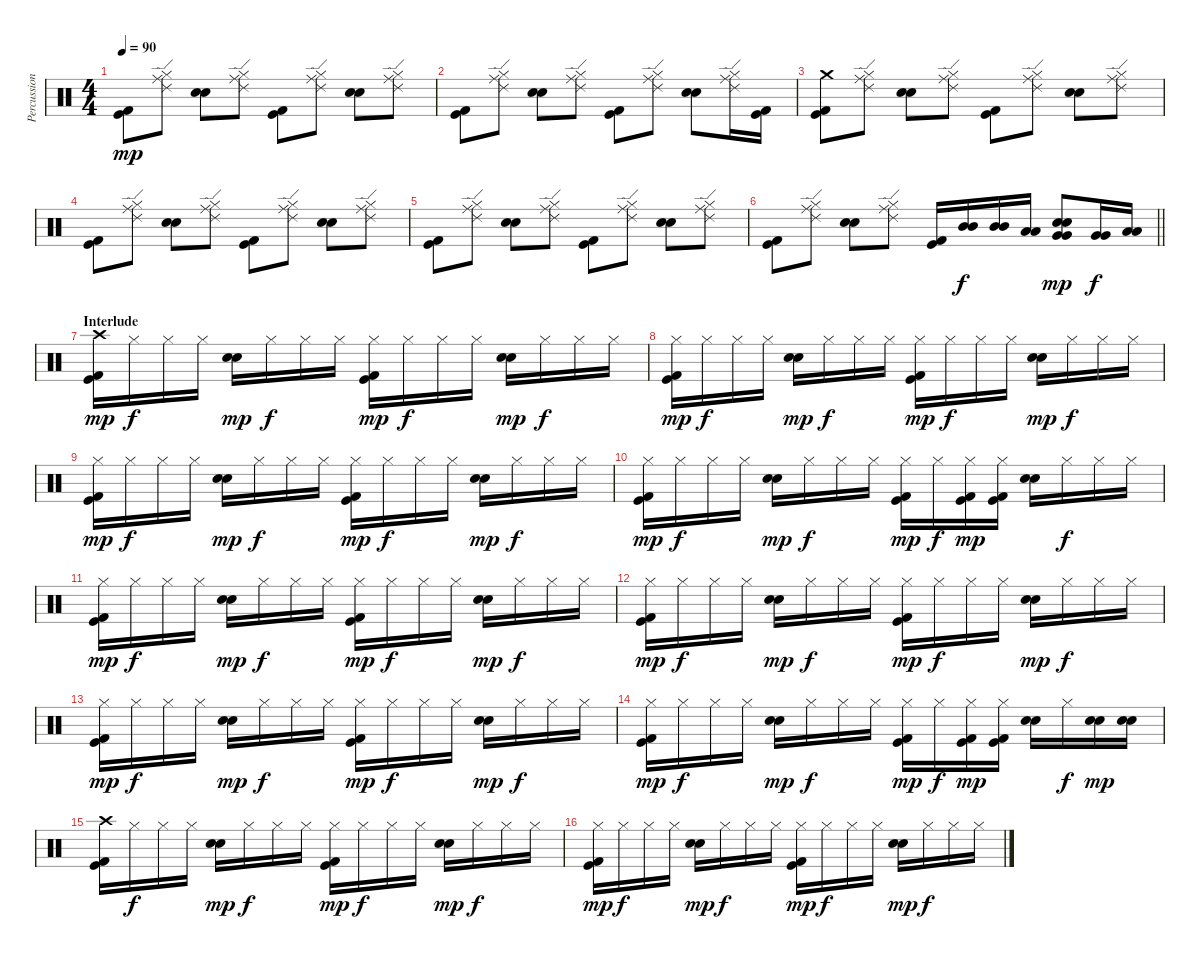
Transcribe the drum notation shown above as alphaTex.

\track ("Percussion" "Percussion") {instrument percussion}
\staff {score}
\articulation defaults
\ts (4 4)
\tempo 90
\clef neutral
\ks c
("Kick (hit)" "Kick (hit) 2").8{dy mp} ("Ride (edge) 2" "Ride (middle)" "Hi-Hat (closed)").8 ("Snare (hit) 2" "Electric Snare (hit)").8 ("Ride (edge) 2" "Ride (middle)" "Hi-Hat (closed)").8 ("Kick (hit)" "Kick (hit) 2").8 ("Ride (edge) 2" "Ride (middle)" "Hi-Hat (closed)").8 ("Snare (hit) 2" "Electric Snare (hit)").8 ("Ride (edge) 2" "Ride (middle)" "Hi-Hat (closed)").8 |
("Kick (hit)" "Kick (hit) 2").8 ("Ride (edge) 2" "Ride (middle)" "Hi-Hat (closed)").8 ("Snare (hit) 2" "Electric Snare (hit)").8 ("Ride (edge) 2" "Ride (middle)" "Hi-Hat (closed)").8 ("Kick (hit)" "Kick (hit) 2").8 ("Ride (edge) 2" "Ride (middle)" "Hi-Hat (closed)").8 ("Snare (hit) 2" "Electric Snare (hit)").8 ("Ride (edge) 2" "Ride (middle)" "Hi-Hat (closed)").16 ("Kick (hit)" "Kick (hit) 2").16 |
("Crash medium (hit)" "Kick (hit)" "Kick (hit) 2").8 ("Ride (edge) 2" "Ride (middle)" "Hi-Hat (closed)").8 ("Snare (hit) 2" "Electric Snare (hit)").8 ("Ride (edge) 2" "Ride (middle)" "Hi-Hat (closed)").8 ("Kick (hit)" "Kick (hit) 2").8 ("Ride (edge) 2" "Ride (middle)" "Hi-Hat (closed)").8 ("Snare (hit) 2" "Electric Snare (hit)").8 ("Ride (edge) 2" "Ride (middle)" "Hi-Hat (closed)").8 |
("Kick (hit)" "Kick (hit) 2").8 ("Ride (edge) 2" "Ride (middle)" "Hi-Hat (closed)").8 ("Snare (hit) 2" "Electric Snare (hit)").8 ("Ride (edge) 2" "Ride (middle)" "Hi-Hat (closed)").8 ("Kick (hit)" "Kick (hit) 2").8 ("Ride (edge) 2" "Ride (middle)" "Hi-Hat (closed)").8 ("Snare (hit) 2" "Electric Snare (hit)").8 ("Ride (edge) 2" "Ride (middle)" "Hi-Hat (closed)").8 |
("Kick (hit)" "Kick (hit) 2").8 ("Ride (edge) 2" "Ride (middle)" "Hi-Hat (closed)").8 ("Snare (hit) 2" "Electric Snare (hit)").8 ("Ride (edge) 2" "Ride (middle)" "Hi-Hat (closed)").8 ("Kick (hit)" "Kick (hit) 2").8 ("Ride (edge) 2" "Ride (middle)" "Hi-Hat (closed)").8 ("Snare (hit) 2" "Electric Snare (hit)").8 ("Ride (edge) 2" "Ride (middle)" "Hi-Hat (closed)").8 |
\barLineRight lightlight
("Kick (hit)" "Kick (hit) 2").8 ("Ride (edge) 2" "Ride (middle)" "Hi-Hat (closed)").8 ("Snare (hit) 2" "Electric Snare (hit)").8 ("Ride (edge) 2" "Ride (middle)" "Hi-Hat (closed)").8 ("Kick (hit)" "Kick (hit) 2").16 ("Mid Tom (hit)" "Mid Tom (hit)").16{dy f} ("Mid Tom (hit)" "Mid Tom (hit)").16 ("Low Tom (hit)" "Low Tom (hit)").16 ("Very Low Tom (hit)" "Very Low Tom (hit)" "Snare (hit) 2" "Electric Snare (hit)").8{dy mp} ("Very Low Tom (hit)" "Very Low Tom (hit)").16{dy f} ("Low Floor Tom (hit)" "Low Floor Tom (hit)").16 |
\section ("" "Interlude")
("Crash high (hit)" "Kick (hit)" "Kick (hit) 2").16{dy mp} "Hi-Hat (closed)".16{dy f} "Hi-Hat (closed)".16 "Hi-Hat (closed)".16 ("Snare (hit) 2" "Electric Snare (hit)").16{dy mp} "Hi-Hat (closed)".16{dy f} "Hi-Hat (closed)".16 "Hi-Hat (closed)".16 ("Hi-Hat (closed)" "Kick (hit)" "Kick (hit) 2").16{dy mp} "Hi-Hat (closed)".16{dy f} "Hi-Hat (closed)".16 "Hi-Hat (closed)".16 ("Snare (hit) 2" "Electric Snare (hit)").16{dy mp} "Hi-Hat (closed)".16{dy f} "Hi-Hat (closed)".16 "Hi-Hat (closed)".16 |
("Hi-Hat (closed)" "Kick (hit)" "Kick (hit) 2").16{dy mp} "Hi-Hat (closed)".16{dy f} "Hi-Hat (closed)".16 "Hi-Hat (closed)".16 ("Snare (hit) 2" "Electric Snare (hit)").16{dy mp} "Hi-Hat (closed)".16{dy f} "Hi-Hat (closed)".16 "Hi-Hat (closed)".16 ("Hi-Hat (closed)" "Kick (hit)" "Kick (hit) 2").16{dy mp} "Hi-Hat (closed)".16{dy f} "Hi-Hat (closed)".16 "Hi-Hat (closed)".16 ("Snare (hit) 2" "Electric Snare (hit)").16{dy mp} "Hi-Hat (closed)".16{dy f} "Hi-Hat (closed)".16 "Hi-Hat (closed)".16 |
("Hi-Hat (closed)" "Kick (hit)" "Kick (hit) 2").16{dy mp} "Hi-Hat (closed)".16{dy f} "Hi-Hat (closed)".16 "Hi-Hat (closed)".16 ("Snare (hit) 2" "Electric Snare (hit)").16{dy mp} "Hi-Hat (closed)".16{dy f} "Hi-Hat (closed)".16 "Hi-Hat (closed)".16 ("Hi-Hat (closed)" "Kick (hit)" "Kick (hit) 2").16{dy mp} "Hi-Hat (closed)".16{dy f} "Hi-Hat (closed)".16 "Hi-Hat (closed)".16 ("Snare (hit) 2" "Electric Snare (hit)").16{dy mp} "Hi-Hat (closed)".16{dy f} "Hi-Hat (closed)".16 "Hi-Hat (closed)".16 |
("Hi-Hat (closed)" "Kick (hit)" "Kick (hit) 2").16{dy mp} "Hi-Hat (closed)".16{dy f} "Hi-Hat (closed)".16 "Hi-Hat (closed)".16 ("Snare (hit) 2" "Electric Snare (hit)").16{dy mp} "Hi-Hat (closed)".16{dy f} "Hi-Hat (closed)".16 "Hi-Hat (closed)".16 ("Hi-Hat (closed)" "Kick (hit)" "Kick (hit) 2").16{dy mp} "Hi-Hat (closed)".16{dy f} ("Hi-Hat (closed)" "Kick (hit)" "Kick (hit) 2").16{dy mp} ("Hi-Hat (closed)" "Kick (hit)" "Kick (hit) 2").16 ("Snare (hit) 2" "Electric Snare (hit)").16 "Hi-Hat (closed)".16{dy f} "Hi-Hat (closed)".16 "Hi-Hat (closed)".16 |
("Hi-Hat (closed)" "Kick (hit)" "Kick (hit) 2").16{dy mp} "Hi-Hat (closed)".16{dy f} "Hi-Hat (closed)".16 "Hi-Hat (closed)".16 ("Snare (hit) 2" "Electric Snare (hit)").16{dy mp} "Hi-Hat (closed)".16{dy f} "Hi-Hat (closed)".16 "Hi-Hat (closed)".16 ("Hi-Hat (closed)" "Kick (hit)" "Kick (hit) 2").16{dy mp} "Hi-Hat (closed)".16{dy f} "Hi-Hat (closed)".16 "Hi-Hat (closed)".16 ("Snare (hit) 2" "Electric Snare (hit)").16{dy mp} "Hi-Hat (closed)".16{dy f} "Hi-Hat (closed)".16 "Hi-Hat (closed)".16 |
("Hi-Hat (closed)" "Kick (hit)" "Kick (hit) 2").16{dy mp} "Hi-Hat (closed)".16{dy f} "Hi-Hat (closed)".16 "Hi-Hat (closed)".16 ("Snare (hit) 2" "Electric Snare (hit)").16{dy mp} "Hi-Hat (closed)".16{dy f} "Hi-Hat (closed)".16 "Hi-Hat (closed)".16 ("Hi-Hat (closed)" "Kick (hit)" "Kick (hit) 2").16{dy mp} "Hi-Hat (closed)".16{dy f} "Hi-Hat (closed)".16 "Hi-Hat (closed)".16 ("Snare (hit) 2" "Electric Snare (hit)").16{dy mp} "Hi-Hat (closed)".16{dy f} "Hi-Hat (closed)".16 "Hi-Hat (closed)".16 |
("Hi-Hat (closed)" "Kick (hit)" "Kick (hit) 2").16{dy mp} "Hi-Hat (closed)".16{dy f} "Hi-Hat (closed)".16 "Hi-Hat (closed)".16 ("Snare (hit) 2" "Electric Snare (hit)").16{dy mp} "Hi-Hat (closed)".16{dy f} "Hi-Hat (closed)".16 "Hi-Hat (closed)".16 ("Hi-Hat (closed)" "Kick (hit)" "Kick (hit) 2").16{dy mp} "Hi-Hat (closed)".16{dy f} "Hi-Hat (closed)".16 "Hi-Hat (closed)".16 ("Snare (hit) 2" "Electric Snare (hit)").16{dy mp} "Hi-Hat (closed)".16{dy f} "Hi-Hat (closed)".16 "Hi-Hat (closed)".16 |
("Hi-Hat (closed)" "Kick (hit)" "Kick (hit) 2").16{dy mp} "Hi-Hat (closed)".16{dy f} "Hi-Hat (closed)".16 "Hi-Hat (closed)".16 ("Snare (hit) 2" "Electric Snare (hit)").16{dy mp} "Hi-Hat (closed)".16{dy f} "Hi-Hat (closed)".16 "Hi-Hat (closed)".16 ("Hi-Hat (closed)" "Kick (hit)" "Kick (hit) 2").16{dy mp} "Hi-Hat (closed)".16{dy f} ("Hi-Hat (closed)" "Kick (hit)" "Kick (hit) 2").16{dy mp} ("Hi-Hat (closed)" "Kick (hit)" "Kick (hit) 2").16 ("Snare (hit) 2" "Electric Snare (hit)").16 "Hi-Hat (closed)".16{dy f} ("Snare (hit) 2" "Electric Snare (hit)").16{dy mp} ("Snare (hit) 2" "Electric Snare (hit)").16 |
("Crash high (hit)" "Kick (hit)" "Kick (hit) 2").16 "Hi-Hat (closed)".16{dy f} "Hi-Hat (closed)".16 "Hi-Hat (closed)".16 ("Snare (hit) 2" "Electric Snare (hit)").16{dy mp} "Hi-Hat (closed)".16{dy f} "Hi-Hat (closed)".16 "Hi-Hat (closed)".16 ("Hi-Hat (closed)" "Kick (hit)" "Kick (hit) 2").16{dy mp} "Hi-Hat (closed)".16{dy f} "Hi-Hat (closed)".16 "Hi-Hat (closed)".16 ("Snare (hit) 2" "Electric Snare (hit)").16{dy mp} "Hi-Hat (closed)".16{dy f} "Hi-Hat (closed)".16 "Hi-Hat (closed)".16 |
("Hi-Hat (closed)" "Kick (hit)" "Kick (hit) 2").16{dy mp} "Hi-Hat (closed)".16{dy f} "Hi-Hat (closed)".16 "Hi-Hat (closed)".16 ("Snare (hit) 2" "Electric Snare (hit)").16{dy mp} "Hi-Hat (closed)".16{dy f} "Hi-Hat (closed)".16 "Hi-Hat (closed)".16 ("Hi-Hat (closed)" "Kick (hit)" "Kick (hit) 2").16{dy mp} "Hi-Hat (closed)".16{dy f} "Hi-Hat (closed)".16 "Hi-Hat (closed)".16 ("Snare (hit) 2" "Electric Snare (hit)").16{dy mp} "Hi-Hat (closed)".16{dy f} "Hi-Hat (closed)".16 "Hi-Hat (closed)".16
